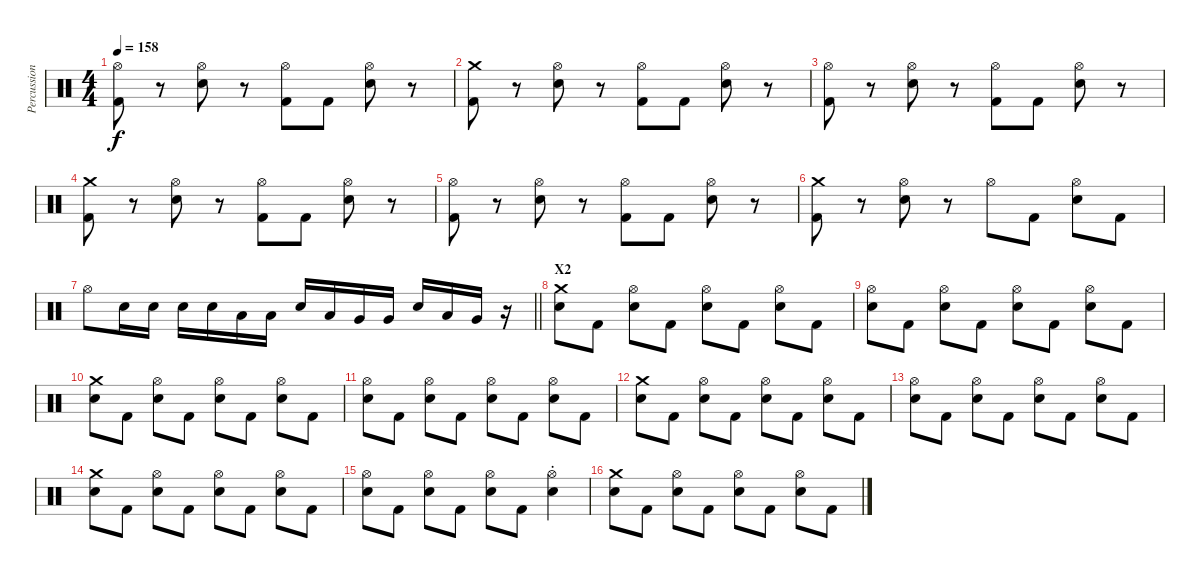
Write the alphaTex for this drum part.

\track ("Percussion" "Percussion") {instrument percussion}
\staff {score}
\articulation defaults
\ts (4 4)
\tempo 158
\clef neutral
\ks c
("Hi-Hat (open)" "Kick (hit) 2").8{dy f} r.8 ("Hi-Hat (open)" "Electric Snare (hit)").8 r.8 ("Hi-Hat (open)" "Kick (hit) 2").8 "Kick (hit) 2".8 ("Hi-Hat (open)" "Electric Snare (hit)").8 r.8 |
("Crash medium (hit)" "Kick (hit) 2").8 r.8 ("Hi-Hat (open)" "Electric Snare (hit)").8 r.8 ("Hi-Hat (open)" "Kick (hit) 2").8 "Kick (hit) 2".8 ("Hi-Hat (open)" "Electric Snare (hit)").8 r.8 |
("Hi-Hat (open)" "Kick (hit) 2").8 r.8 ("Hi-Hat (open)" "Electric Snare (hit)").8 r.8 ("Hi-Hat (open)" "Kick (hit) 2").8 "Kick (hit) 2".8 ("Hi-Hat (open)" "Electric Snare (hit)").8 r.8 |
("Crash medium (hit)" "Kick (hit) 2").8 r.8 ("Hi-Hat (open)" "Electric Snare (hit)").8 r.8 ("Hi-Hat (open)" "Kick (hit) 2").8 "Kick (hit) 2".8 ("Hi-Hat (open)" "Electric Snare (hit)").8 r.8 |
("Hi-Hat (open)" "Kick (hit) 2").8 r.8 ("Hi-Hat (open)" "Electric Snare (hit)").8 r.8 ("Hi-Hat (open)" "Kick (hit) 2").8 "Kick (hit) 2".8 ("Hi-Hat (open)" "Electric Snare (hit)").8 r.8 |
("Crash medium (hit)" "Kick (hit) 2").8 r.8 ("Hi-Hat (open)" "Electric Snare (hit)").8 r.8 "Hi-Hat (open)".8 "Kick (hit) 2".8 ("Hi-Hat (open)" "Electric Snare (hit)").8 "Kick (hit) 2".8 |
\barLineRight lightlight "Hi-Hat (open)".8 "Electric Snare (hit)".16 "Electric Snare (hit)".16 "Electric Snare (hit)".16 "Electric Snare (hit)".16 "Low Tom (hit)".16 "Low Tom (hit)".16 "Electric Snare (hit)".16 "Low Tom (hit)".16 "Very Low Tom (hit)".16 "Very Low Tom (hit)".16 "Electric Snare (hit)".16 "Low Tom (hit)".16 "Very Low Tom (hit)".16
r.16 |
\section ("" "X2")
("Crash medium (hit)" "Electric Snare (hit)").8 "Kick (hit) 2".8 ("Hi-Hat (open)" "Electric Snare (hit)").8 "Kick (hit) 2".8 ("Hi-Hat (open)" "Electric Snare (hit)").8 "Kick (hit) 2".8 ("Hi-Hat (open)" "Electric Snare (hit)").8 "Kick (hit) 2".8 |
("Hi-Hat (open)" "Electric Snare (hit)").8 "Kick (hit) 2".8 ("Hi-Hat (open)" "Electric Snare (hit)").8 "Kick (hit) 2".8 ("Hi-Hat (open)" "Electric Snare (hit)").8 "Kick (hit) 2".8 ("Hi-Hat (open)" "Electric Snare (hit)").8 "Kick (hit) 2".8 |
("Crash medium (hit)" "Electric Snare (hit)").8 "Kick (hit) 2".8 ("Hi-Hat (open)" "Electric Snare (hit)").8 "Kick (hit) 2".8 ("Hi-Hat (open)" "Electric Snare (hit)").8 "Kick (hit) 2".8 ("Hi-Hat (open)" "Electric Snare (hit)").8 "Kick (hit) 2".8 |
("Hi-Hat (open)" "Electric Snare (hit)").8 "Kick (hit) 2".8 ("Hi-Hat (open)" "Electric Snare (hit)").8 "Kick (hit) 2".8 ("Hi-Hat (open)" "Electric Snare (hit)").8 "Kick (hit) 2".8 ("Hi-Hat (open)" "Electric Snare (hit)").8 "Kick (hit) 2".8 |
("Crash medium (hit)" "Electric Snare (hit)").8 "Kick (hit) 2".8 ("Hi-Hat (open)" "Electric Snare (hit)").8 "Kick (hit) 2".8 ("Hi-Hat (open)" "Electric Snare (hit)").8 "Kick (hit) 2".8 ("Hi-Hat (open)" "Electric Snare (hit)").8 "Kick (hit) 2".8 |
("Hi-Hat (open)" "Electric Snare (hit)").8 "Kick (hit) 2".8 ("Hi-Hat (open)" "Electric Snare (hit)").8 "Kick (hit) 2".8 ("Hi-Hat (open)" "Electric Snare (hit)").8 "Kick (hit) 2".8 ("Hi-Hat (open)" "Electric Snare (hit)").8 "Kick (hit) 2".8 |
("Crash medium (hit)" "Electric Snare (hit)").8 "Kick (hit) 2".8 ("Hi-Hat (open)" "Electric Snare (hit)").8 "Kick (hit) 2".8 ("Hi-Hat (open)" "Electric Snare (hit)").8 "Kick (hit) 2".8 ("Hi-Hat (open)" "Electric Snare (hit)").8 "Kick (hit) 2".8 |
("Hi-Hat (open)" "Electric Snare (hit)").8 "Kick (hit) 2".8 ("Hi-Hat (open)" "Electric Snare (hit)").8 "Kick (hit) 2".8 ("Hi-Hat (open)" "Electric Snare (hit)").8 "Kick (hit) 2".8 ("Hi-Hat (open)" "Electric Snare (hit)"{st}).4 |
("Crash medium (hit)" "Electric Snare (hit)").8 "Kick (hit) 2".8 ("Hi-Hat (open)" "Electric Snare (hit)").8 "Kick (hit) 2".8 ("Hi-Hat (open)" "Electric Snare (hit)").8 "Kick (hit) 2".8 ("Hi-Hat (open)" "Electric Snare (hit)").8 "Kick (hit) 2".8
